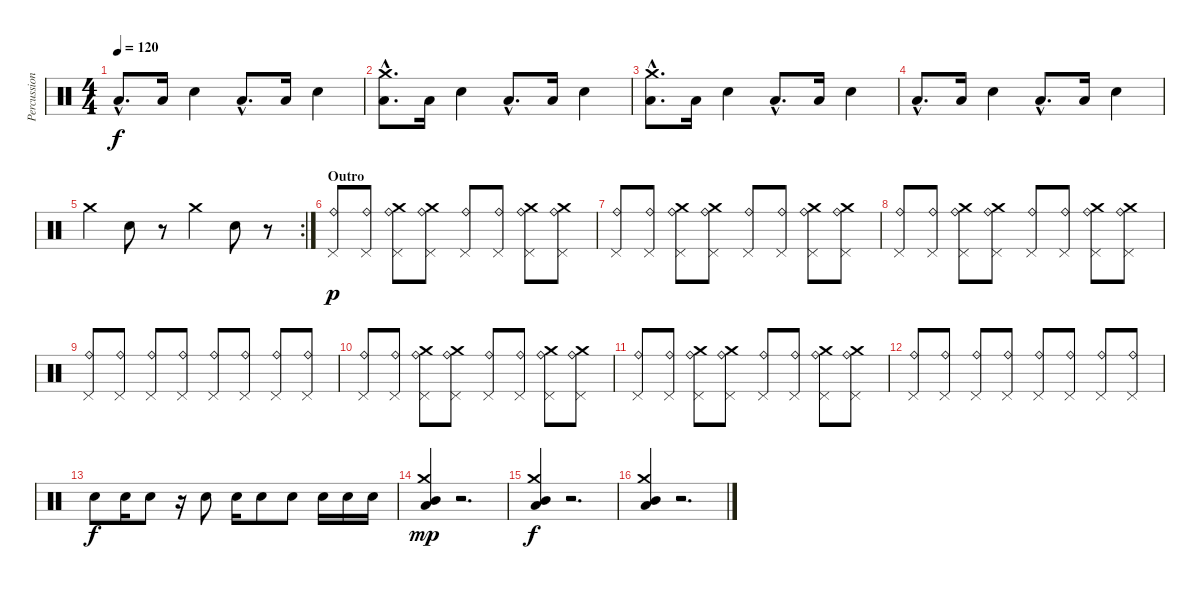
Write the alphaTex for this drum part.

\track ("Percussion 1" "Percussion") {instrument percussion}
\staff {score}
\articulation defaults
\ts (4 4)
\tempo 120
\clef neutral
\ks c "Low Tom (hit)"{hac}.8{d dy f} "Low Tom (hit)".16 "Electric Snare (hit)".4 "Low Tom (hit)"{hac}.8{d} "Low Tom (hit)".16 "Electric Snare (hit)".4
|
("Crash medium (hit)"{hac} "Low Tom (hit)"{hac}).8{d} "Low Tom (hit)".16 "Electric Snare (hit)".4 "Low Tom (hit)"{hac}.8{d} "Low Tom (hit)".16 "Electric Snare (hit)".4 |
("Crash medium (hit)"{hac} "Low Tom (hit)"{hac}).8{d} "Low Tom (hit)".16 "Electric Snare (hit)".4 "Low Tom (hit)"{hac}.8{d} "Low Tom (hit)".16 "Electric Snare (hit)".4 |
"Low Tom (hit)"{hac}.8{d} "Low Tom (hit)".16 "Electric Snare (hit)".4 "Low Tom (hit)"{hac}.8{d} "Low Tom (hit)".16 "Electric Snare (hit)".4 |
\rc 2 "Crash medium (hit)".4 "Electric Snare (hit)".8
r.8 "Crash medium (hit)".4 "Electric Snare (hit)".8 r.8 |
\section ("" "Outro")
("Pedal Hi-Hat (hit)" "Ride (bell)").8{dy p volume 12} ("Pedal Hi-Hat (hit)" "Ride (bell)").8 ("Pedal Hi-Hat (hit)" "Ride (bell)" "Crash medium (hit)").8 ("Pedal Hi-Hat (hit)" "Ride (bell)" "Crash medium (hit)").8 ("Pedal Hi-Hat (hit)" "Ride (bell)").8 ("Pedal Hi-Hat (hit)" "Ride (bell)").8 ("Pedal Hi-Hat (hit)" "Ride (bell)" "Crash medium (hit)").8 ("Pedal Hi-Hat (hit)" "Ride (bell)" "Crash medium (hit)").8 |
("Pedal Hi-Hat (hit)" "Ride (bell)").8 ("Pedal Hi-Hat (hit)" "Ride (bell)").8 ("Pedal Hi-Hat (hit)" "Ride (bell)" "Crash medium (hit)").8 ("Pedal Hi-Hat (hit)" "Ride (bell)" "Crash medium (hit)").8 ("Pedal Hi-Hat (hit)" "Ride (bell)").8 ("Pedal Hi-Hat (hit)" "Ride (bell)").8 ("Pedal Hi-Hat (hit)" "Ride (bell)" "Crash medium (hit)").8 ("Pedal Hi-Hat (hit)" "Ride (bell)" "Crash medium (hit)").8 |
("Pedal Hi-Hat (hit)" "Ride (bell)").8 ("Pedal Hi-Hat (hit)" "Ride (bell)").8 ("Pedal Hi-Hat (hit)" "Ride (bell)" "Crash medium (hit)").8 ("Pedal Hi-Hat (hit)" "Ride (bell)" "Crash medium (hit)").8 ("Pedal Hi-Hat (hit)" "Ride (bell)").8 ("Pedal Hi-Hat (hit)" "Ride (bell)").8 ("Pedal Hi-Hat (hit)" "Ride (bell)" "Crash medium (hit)").8 ("Pedal Hi-Hat (hit)" "Ride (bell)" "Crash medium (hit)").8 |
("Pedal Hi-Hat (hit)" "Ride (bell)").8 ("Pedal Hi-Hat (hit)" "Ride (bell)").8 ("Pedal Hi-Hat (hit)" "Ride (bell)").8 ("Pedal Hi-Hat (hit)" "Ride (bell)").8 ("Pedal Hi-Hat (hit)" "Ride (bell)").8 ("Pedal Hi-Hat (hit)" "Ride (bell)").8 ("Pedal Hi-Hat (hit)" "Ride (bell)").8 ("Pedal Hi-Hat (hit)" "Ride (bell)").8 |
("Pedal Hi-Hat (hit)" "Ride (bell)").8 ("Pedal Hi-Hat (hit)" "Ride (bell)").8 ("Pedal Hi-Hat (hit)" "Ride (bell)" "Crash medium (hit)").8 ("Pedal Hi-Hat (hit)" "Ride (bell)" "Crash medium (hit)").8 ("Pedal Hi-Hat (hit)" "Ride (bell)").8 ("Pedal Hi-Hat (hit)" "Ride (bell)").8 ("Pedal Hi-Hat (hit)" "Ride (bell)" "Crash medium (hit)").8 ("Pedal Hi-Hat (hit)" "Ride (bell)" "Crash medium (hit)").8 |
("Pedal Hi-Hat (hit)" "Ride (bell)").8 ("Pedal Hi-Hat (hit)" "Ride (bell)").8 ("Pedal Hi-Hat (hit)" "Ride (bell)" "Crash medium (hit)").8 ("Pedal Hi-Hat (hit)" "Ride (bell)" "Crash medium (hit)").8 ("Pedal Hi-Hat (hit)" "Ride (bell)").8 ("Pedal Hi-Hat (hit)" "Ride (bell)").8 ("Pedal Hi-Hat (hit)" "Ride (bell)" "Crash medium (hit)").8 ("Pedal Hi-Hat (hit)" "Ride (bell)" "Crash medium (hit)").8 |
("Pedal Hi-Hat (hit)" "Ride (bell)").8 ("Pedal Hi-Hat (hit)" "Ride (bell)").8 ("Pedal Hi-Hat (hit)" "Ride (bell)").8 ("Pedal Hi-Hat (hit)" "Ride (bell)").8 ("Pedal Hi-Hat (hit)" "Ride (bell)").8 ("Pedal Hi-Hat (hit)" "Ride (bell)").8 ("Pedal Hi-Hat (hit)" "Ride (bell)").8 ("Pedal Hi-Hat (hit)" "Ride (bell)").8 |
"Electric Snare (hit)".8{dy f} "Electric Snare (hit)".16 "Electric Snare (hit)".8 r.16 "Electric Snare (hit)".8 "Electric Snare (hit)".16 "Electric Snare (hit)".8 "Electric Snare (hit)".8 "Electric Snare (hit)".16 "Electric Snare (hit)".16 "Electric Snare (hit)".16 |
("Mid Tom (hit)" "Low Tom (hit)" "Crash medium (hit)").4{dy mp volume 14} r.2{d} |
("Mid Tom (hit)" "Low Tom (hit)" "Crash medium (hit)").4{dy f} r.2{d} |
("Mid Tom (hit)" "Low Tom (hit)" "Crash medium (hit)").4 r.2{d}
